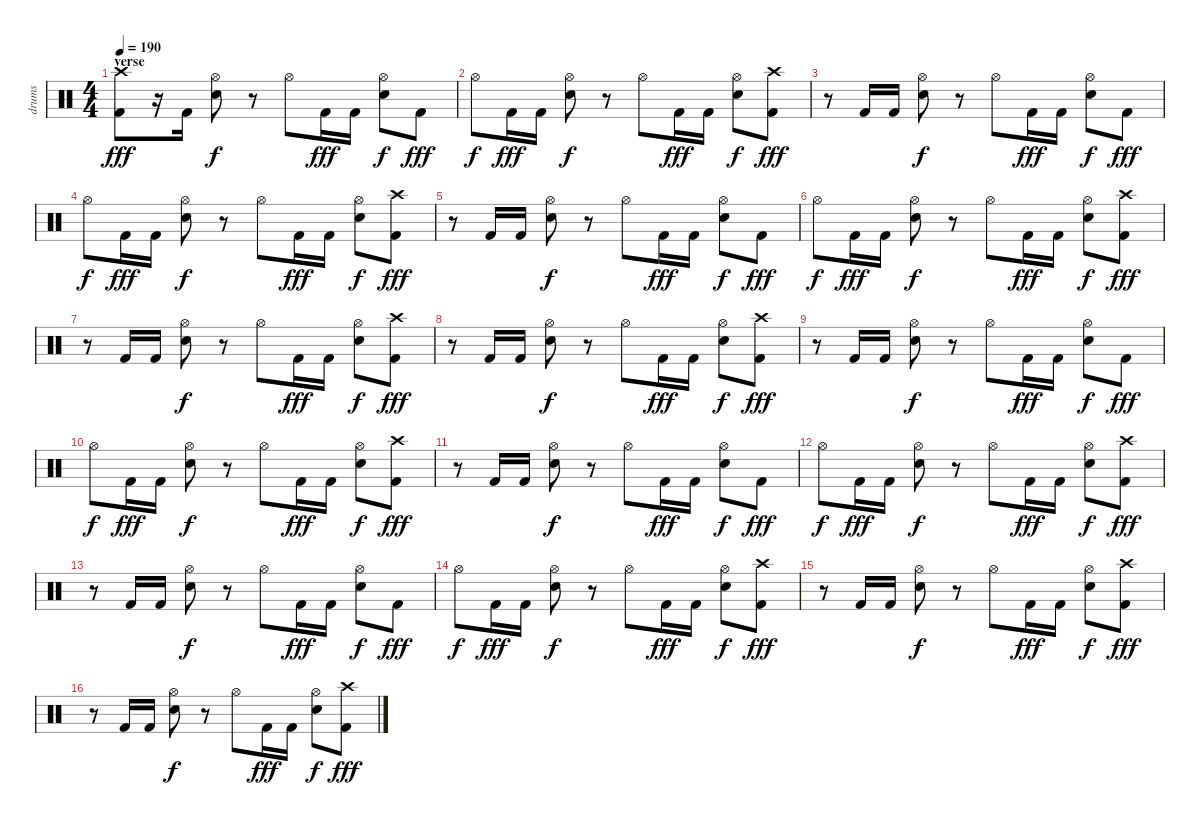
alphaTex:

\track ("drums" "drums") {instrument percussion}
\staff {score}
\articulation defaults
\ts (4 4)
\section ("" "verse")
\tempo 190
\clef neutral
\ks c
("Crash high (hit)" "Kick (hit) 2").8{dy fff} r.16 "Kick (hit) 2".16 ("Hi-Hat (open)" "Snare (hit) 2").8{dy f} r.8 "Hi-Hat (open)".8 "Kick (hit) 2".16{dy fff} "Kick (hit) 2".16 ("Hi-Hat (open)" "Snare (hit) 2").8{dy f} "Kick (hit) 2".8{dy fff} |
"Hi-Hat (open)".8{dy f} "Kick (hit) 2".16{dy fff} "Kick (hit) 2".16 ("Hi-Hat (open)" "Snare (hit) 2").8{dy f} r.8 "Hi-Hat (open)".8 "Kick (hit) 2".16{dy fff} "Kick (hit) 2".16 ("Hi-Hat (open)" "Snare (hit) 2").8{dy f} ("Crash high (hit)" "Kick (hit) 2").8{dy fff} |
r.8 "Kick (hit) 2".16 "Kick (hit) 2".16 ("Hi-Hat (open)" "Snare (hit) 2").8{dy f} r.8 "Hi-Hat (open)".8 "Kick (hit) 2".16{dy fff} "Kick (hit) 2".16 ("Hi-Hat (open)" "Snare (hit) 2").8{dy f} "Kick (hit) 2".8{dy fff} |
"Hi-Hat (open)".8{dy f} "Kick (hit) 2".16{dy fff} "Kick (hit) 2".16 ("Hi-Hat (open)" "Snare (hit) 2").8{dy f} r.8 "Hi-Hat (open)".8 "Kick (hit) 2".16{dy fff} "Kick (hit) 2".16 ("Hi-Hat (open)" "Snare (hit) 2").8{dy f} ("Crash high (hit)" "Kick (hit) 2").8{dy fff} |
r.8 "Kick (hit) 2".16 "Kick (hit) 2".16 ("Hi-Hat (open)" "Snare (hit) 2").8{dy f} r.8 "Hi-Hat (open)".8 "Kick (hit) 2".16{dy fff} "Kick (hit) 2".16 ("Hi-Hat (open)" "Snare (hit) 2").8{dy f} "Kick (hit) 2".8{dy fff} |
"Hi-Hat (open)".8{dy f} "Kick (hit) 2".16{dy fff} "Kick (hit) 2".16 ("Hi-Hat (open)" "Snare (hit) 2").8{dy f} r.8 "Hi-Hat (open)".8 "Kick (hit) 2".16{dy fff} "Kick (hit) 2".16 ("Hi-Hat (open)" "Snare (hit) 2").8{dy f} ("Crash high (hit)" "Kick (hit) 2").8{dy fff} |
r.8 "Kick (hit) 2".16 "Kick (hit) 2".16 ("Hi-Hat (open)" "Snare (hit) 2").8{dy f} r.8 "Hi-Hat (open)".8 "Kick (hit) 2".16{dy fff} "Kick (hit) 2".16 ("Hi-Hat (open)" "Snare (hit) 2").8{dy f} ("Crash high (hit)" "Kick (hit) 2").8{dy fff} |
r.8 "Kick (hit) 2".16 "Kick (hit) 2".16 ("Hi-Hat (open)" "Snare (hit) 2").8{dy f} r.8 "Hi-Hat (open)".8 "Kick (hit) 2".16{dy fff} "Kick (hit) 2".16 ("Hi-Hat (open)" "Snare (hit) 2").8{dy f} ("Crash high (hit)" "Kick (hit) 2").8{dy fff} |
r.8 "Kick (hit) 2".16 "Kick (hit) 2".16 ("Hi-Hat (open)" "Snare (hit) 2").8{dy f} r.8 "Hi-Hat (open)".8 "Kick (hit) 2".16{dy fff} "Kick (hit) 2".16 ("Hi-Hat (open)" "Snare (hit) 2").8{dy f} "Kick (hit) 2".8{dy fff} |
"Hi-Hat (open)".8{dy f} "Kick (hit) 2".16{dy fff} "Kick (hit) 2".16 ("Hi-Hat (open)" "Snare (hit) 2").8{dy f} r.8 "Hi-Hat (open)".8 "Kick (hit) 2".16{dy fff} "Kick (hit) 2".16 ("Hi-Hat (open)" "Snare (hit) 2").8{dy f} ("Crash high (hit)" "Kick (hit) 2").8{dy fff} |
r.8 "Kick (hit) 2".16 "Kick (hit) 2".16 ("Hi-Hat (open)" "Snare (hit) 2").8{dy f} r.8 "Hi-Hat (open)".8 "Kick (hit) 2".16{dy fff} "Kick (hit) 2".16 ("Hi-Hat (open)" "Snare (hit) 2").8{dy f} "Kick (hit) 2".8{dy fff} |
"Hi-Hat (open)".8{dy f} "Kick (hit) 2".16{dy fff} "Kick (hit) 2".16 ("Hi-Hat (open)" "Snare (hit) 2").8{dy f} r.8 "Hi-Hat (open)".8 "Kick (hit) 2".16{dy fff} "Kick (hit) 2".16 ("Hi-Hat (open)" "Snare (hit) 2").8{dy f} ("Crash high (hit)" "Kick (hit) 2").8{dy fff} |
r.8 "Kick (hit) 2".16 "Kick (hit) 2".16 ("Hi-Hat (open)" "Snare (hit) 2").8{dy f} r.8 "Hi-Hat (open)".8 "Kick (hit) 2".16{dy fff} "Kick (hit) 2".16 ("Hi-Hat (open)" "Snare (hit) 2").8{dy f} "Kick (hit) 2".8{dy fff} |
"Hi-Hat (open)".8{dy f} "Kick (hit) 2".16{dy fff} "Kick (hit) 2".16 ("Hi-Hat (open)" "Snare (hit) 2").8{dy f} r.8 "Hi-Hat (open)".8 "Kick (hit) 2".16{dy fff} "Kick (hit) 2".16 ("Hi-Hat (open)" "Snare (hit) 2").8{dy f} ("Crash high (hit)" "Kick (hit) 2").8{dy fff} |
r.8 "Kick (hit) 2".16 "Kick (hit) 2".16 ("Hi-Hat (open)" "Snare (hit) 2").8{dy f} r.8 "Hi-Hat (open)".8 "Kick (hit) 2".16{dy fff} "Kick (hit) 2".16 ("Hi-Hat (open)" "Snare (hit) 2").8{dy f} ("Crash high (hit)" "Kick (hit) 2").8{dy fff} |
r.8 "Kick (hit) 2".16 "Kick (hit) 2".16 ("Hi-Hat (open)" "Snare (hit) 2").8{dy f} r.8 "Hi-Hat (open)".8 "Kick (hit) 2".16{dy fff} "Kick (hit) 2".16 ("Hi-Hat (open)" "Snare (hit) 2").8{dy f} ("Crash high (hit)" "Kick (hit) 2").8{dy fff}
